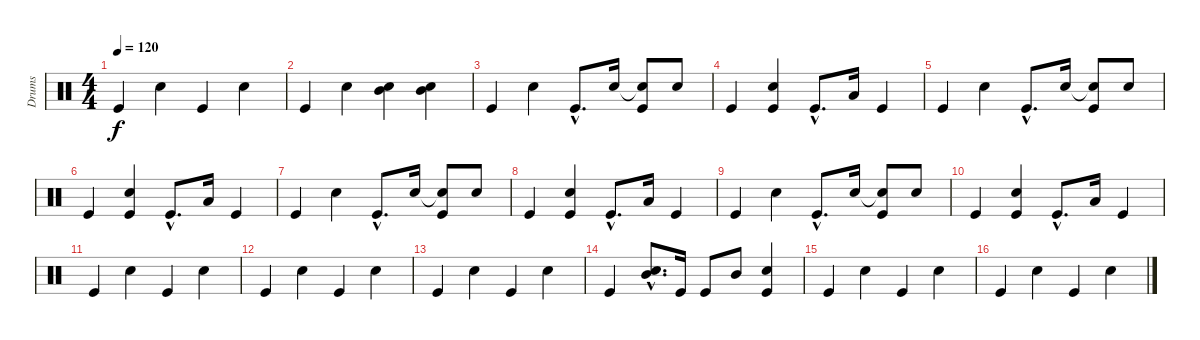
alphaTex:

\track ("Drums" "Drums") {instrument percussion}
\staff {score}
\articulation defaults
\ts (4 4)
\tempo 120
\clef neutral
\ks c "Kick (hit)".4{dy f} "Snare (hit) 2".4 "Kick (hit)".4 "Snare (hit) 2".4
|
"Kick (hit)".4 "Snare (hit) 2".4 ("Snare (hit) 2" "Mid Tom (hit)").4 ("Snare (hit) 2" "Mid Tom (hit)").4 |
"Kick (hit)".4 "Snare (hit) 2".4 "Kick (hit)"{hac}.8{d} "Snare (hit) 2".16 ("Snare (hit) 2"{t} "Kick (hit)").8 "Snare (hit) 2".8 |
"Kick (hit)".4 ("Kick (hit)" "Snare (hit) 2").4 "Kick (hit)"{hac}.8{d} "Low Tom (hit)".16 "Kick (hit)".4 |
"Kick (hit)".4 "Snare (hit) 2".4 "Kick (hit)"{hac}.8{d} "Snare (hit) 2".16 ("Snare (hit) 2"{t} "Kick (hit)").8 "Snare (hit) 2".8 |
"Kick (hit)".4 ("Kick (hit)" "Snare (hit) 2").4 "Kick (hit)"{hac}.8{d} "Low Tom (hit)".16 "Kick (hit)".4 |
"Kick (hit)".4 "Snare (hit) 2".4 "Kick (hit)"{hac}.8{d} "Snare (hit) 2".16 ("Snare (hit) 2"{t} "Kick (hit)").8 "Snare (hit) 2".8 |
"Kick (hit)".4 ("Kick (hit)" "Snare (hit) 2").4 "Kick (hit)"{hac}.8{d} "Low Tom (hit)".16 "Kick (hit)".4 |
"Kick (hit)".4 "Snare (hit) 2".4 "Kick (hit)"{hac}.8{d} "Snare (hit) 2".16 ("Snare (hit) 2"{t} "Kick (hit)").8 "Snare (hit) 2".8 |
"Kick (hit)".4 ("Kick (hit)" "Snare (hit) 2").4 "Kick (hit)"{hac}.8{d} "Low Tom (hit)".16 "Kick (hit)".4 |
"Kick (hit)".4 "Snare (hit) 2".4 "Kick (hit)".4 "Snare (hit) 2".4 |
"Kick (hit)".4 "Snare (hit) 2".4 "Kick (hit)".4 "Snare (hit) 2".4 |
"Kick (hit)".4 "Snare (hit) 2".4 "Kick (hit)".4 "Snare (hit) 2".4 |
"Kick (hit)".4 ("Snare (hit) 2"{hac} "Mid Tom (hit)"{hac}).8{d} "Kick (hit)".16 "Kick (hit)".8 "Mid Tom (hit)".8 ("Kick (hit)" "Snare (hit) 2").4 |
"Kick (hit)".4 "Snare (hit) 2".4 "Kick (hit)".4 "Snare (hit) 2".4 |
"Kick (hit)".4 "Snare (hit) 2".4 "Kick (hit)".4 "Snare (hit) 2".4
